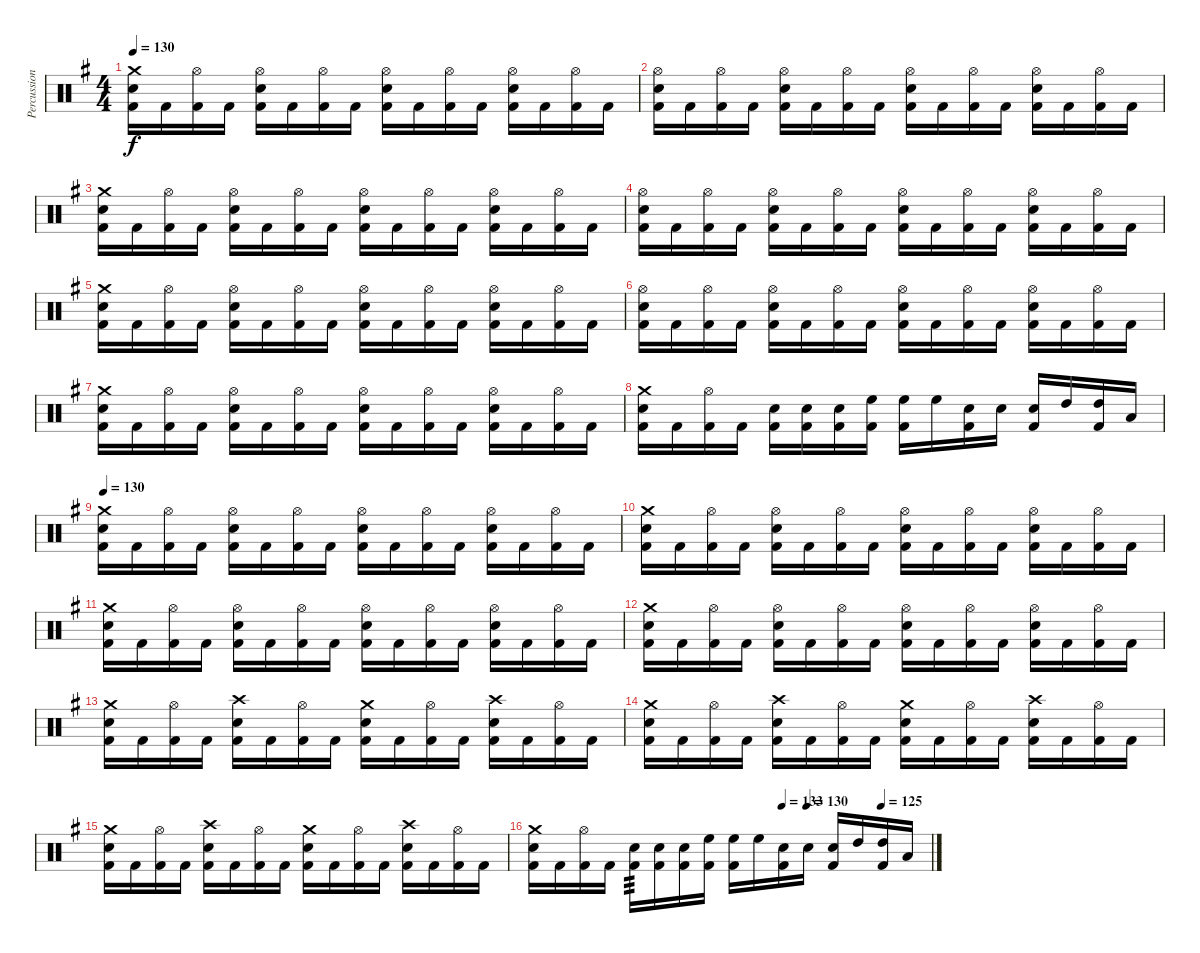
\track ("Percussion" "Percussion") {instrument percussion}
\staff {score}
\articulation defaults
\ts (4 4)
\tempo 130
\clef neutral
\ks eminor
("Crash medium (hit)" "Snare (hit) 2" "Kick (hit) 2").16{dy f} "Kick (hit) 2".16 ("Hi-Hat (open)" "Kick (hit) 2").16 "Kick (hit) 2".16 ("Hi-Hat (open)" "Snare (hit) 2" "Kick (hit) 2").16 "Kick (hit) 2".16 ("Hi-Hat (open)" "Kick (hit) 2").16 "Kick (hit) 2".16 ("Hi-Hat (open)" "Snare (hit) 2" "Kick (hit) 2").16 "Kick (hit) 2".16 ("Hi-Hat (open)" "Kick (hit) 2").16 "Kick (hit) 2".16 ("Hi-Hat (open)" "Snare (hit) 2" "Kick (hit) 2").16 "Kick (hit) 2".16 ("Hi-Hat (open)" "Kick (hit) 2").16 "Kick (hit) 2".16 |
("Hi-Hat (open)" "Snare (hit) 2" "Kick (hit) 2").16 "Kick (hit) 2".16 ("Hi-Hat (open)" "Kick (hit) 2").16 "Kick (hit) 2".16 ("Hi-Hat (open)" "Snare (hit) 2" "Kick (hit) 2").16 "Kick (hit) 2".16 ("Hi-Hat (open)" "Kick (hit) 2").16 "Kick (hit) 2".16 ("Hi-Hat (open)" "Snare (hit) 2" "Kick (hit) 2").16 "Kick (hit) 2".16 ("Hi-Hat (open)" "Kick (hit) 2").16 "Kick (hit) 2".16 ("Hi-Hat (open)" "Snare (hit) 2" "Kick (hit) 2").16 "Kick (hit) 2".16 ("Hi-Hat (open)" "Kick (hit) 2").16 "Kick (hit) 2".16 |
("Crash medium (hit)" "Snare (hit) 2" "Kick (hit) 2").16 "Kick (hit) 2".16 ("Hi-Hat (open)" "Kick (hit) 2").16 "Kick (hit) 2".16 ("Hi-Hat (open)" "Snare (hit) 2" "Kick (hit) 2").16 "Kick (hit) 2".16 ("Hi-Hat (open)" "Kick (hit) 2").16 "Kick (hit) 2".16 ("Hi-Hat (open)" "Snare (hit) 2" "Kick (hit) 2").16 "Kick (hit) 2".16 ("Hi-Hat (open)" "Kick (hit) 2").16 "Kick (hit) 2".16 ("Hi-Hat (open)" "Snare (hit) 2" "Kick (hit) 2").16 "Kick (hit) 2".16 ("Hi-Hat (open)" "Kick (hit) 2").16 "Kick (hit) 2".16 |
("Hi-Hat (open)" "Snare (hit) 2" "Kick (hit) 2").16 "Kick (hit) 2".16 ("Hi-Hat (open)" "Kick (hit) 2").16 "Kick (hit) 2".16 ("Hi-Hat (open)" "Snare (hit) 2" "Kick (hit) 2").16 "Kick (hit) 2".16 ("Hi-Hat (open)" "Kick (hit) 2").16 "Kick (hit) 2".16 ("Hi-Hat (open)" "Snare (hit) 2" "Kick (hit) 2").16 "Kick (hit) 2".16 ("Hi-Hat (open)" "Kick (hit) 2").16 "Kick (hit) 2".16 ("Hi-Hat (open)" "Snare (hit) 2" "Kick (hit) 2").16 "Kick (hit) 2".16 ("Hi-Hat (open)" "Kick (hit) 2").16 "Kick (hit) 2".16 |
("Crash medium (hit)" "Snare (hit) 2" "Kick (hit) 2").16 "Kick (hit) 2".16 ("Hi-Hat (open)" "Kick (hit) 2").16 "Kick (hit) 2".16 ("Hi-Hat (open)" "Snare (hit) 2" "Kick (hit) 2").16 "Kick (hit) 2".16 ("Hi-Hat (open)" "Kick (hit) 2").16 "Kick (hit) 2".16 ("Hi-Hat (open)" "Snare (hit) 2" "Kick (hit) 2").16 "Kick (hit) 2".16 ("Hi-Hat (open)" "Kick (hit) 2").16 "Kick (hit) 2".16 ("Hi-Hat (open)" "Snare (hit) 2" "Kick (hit) 2").16 "Kick (hit) 2".16 ("Hi-Hat (open)" "Kick (hit) 2").16 "Kick (hit) 2".16 |
("Hi-Hat (open)" "Snare (hit) 2" "Kick (hit) 2").16 "Kick (hit) 2".16 ("Hi-Hat (open)" "Kick (hit) 2").16 "Kick (hit) 2".16 ("Hi-Hat (open)" "Snare (hit) 2" "Kick (hit) 2").16 "Kick (hit) 2".16 ("Hi-Hat (open)" "Kick (hit) 2").16 "Kick (hit) 2".16 ("Hi-Hat (open)" "Snare (hit) 2" "Kick (hit) 2").16 "Kick (hit) 2".16 ("Hi-Hat (open)" "Kick (hit) 2").16 "Kick (hit) 2".16 ("Hi-Hat (open)" "Snare (hit) 2" "Kick (hit) 2").16 "Kick (hit) 2".16 ("Hi-Hat (open)" "Kick (hit) 2").16 "Kick (hit) 2".16 |
("Crash medium (hit)" "Snare (hit) 2" "Kick (hit) 2").16 "Kick (hit) 2".16 ("Hi-Hat (open)" "Kick (hit) 2").16 "Kick (hit) 2".16 ("Hi-Hat (open)" "Snare (hit) 2" "Kick (hit) 2").16 "Kick (hit) 2".16 ("Hi-Hat (open)" "Kick (hit) 2").16 "Kick (hit) 2".16 ("Hi-Hat (open)" "Snare (hit) 2" "Kick (hit) 2").16 "Kick (hit) 2".16 ("Hi-Hat (open)" "Kick (hit) 2").16 "Kick (hit) 2".16 ("Hi-Hat (open)" "Snare (hit) 2" "Kick (hit) 2").16 "Kick (hit) 2".16 ("Hi-Hat (open)" "Kick (hit) 2").16 "Kick (hit) 2".16 |
("Crash medium (hit)" "Snare (hit) 2" "Kick (hit) 2").16 "Kick (hit) 2".16 ("Hi-Hat (open)" "Kick (hit) 2").16 "Kick (hit) 2".16 ("Snare (hit) 2" "Kick (hit) 2").16 ("Snare (hit) 2" "Kick (hit) 2").16 ("Snare (hit) 2" "Kick (hit) 2").16 ("High Floor Tom (hit)" "Kick (hit) 2").16 ("High Floor Tom (hit)" "Kick (hit) 2").16 "High Floor Tom (hit)".16 ("Snare (hit) 2" "Kick (hit) 2").16 "Snare (hit) 2".16 ("Snare (hit) 2" "Kick (hit) 2").16 "High Tom (hit)".16 ("High Tom (hit)" "Kick (hit) 2").16 "Low Tom (hit)".16 |
\tempo 130
("Crash medium (hit)" "Snare (hit) 2" "Kick (hit) 2").16 "Kick (hit) 2".16 ("Hi-Hat (open)" "Kick (hit) 2").16 "Kick (hit) 2".16 ("Hi-Hat (open)" "Snare (hit) 2" "Kick (hit) 2").16 "Kick (hit) 2".16 ("Hi-Hat (open)" "Kick (hit) 2").16 "Kick (hit) 2".16 ("Hi-Hat (open)" "Snare (hit) 2" "Kick (hit) 2").16 "Kick (hit) 2".16 ("Hi-Hat (open)" "Kick (hit) 2").16 "Kick (hit) 2".16 ("Hi-Hat (open)" "Snare (hit) 2" "Kick (hit) 2").16 "Kick (hit) 2".16 ("Hi-Hat (open)" "Kick (hit) 2").16 "Kick (hit) 2".16 |
("Crash medium (hit)" "Snare (hit) 2" "Kick (hit) 2").16 "Kick (hit) 2".16 ("Hi-Hat (open)" "Kick (hit) 2").16 "Kick (hit) 2".16 ("Hi-Hat (open)" "Snare (hit) 2" "Kick (hit) 2").16 "Kick (hit) 2".16 ("Hi-Hat (open)" "Kick (hit) 2").16 "Kick (hit) 2".16 ("Hi-Hat (open)" "Snare (hit) 2" "Kick (hit) 2").16 "Kick (hit) 2".16 ("Hi-Hat (open)" "Kick (hit) 2").16 "Kick (hit) 2".16 ("Hi-Hat (open)" "Snare (hit) 2" "Kick (hit) 2").16 "Kick (hit) 2".16 ("Hi-Hat (open)" "Kick (hit) 2").16 "Kick (hit) 2".16 |
("Crash medium (hit)" "Snare (hit) 2" "Kick (hit) 2").16 "Kick (hit) 2".16 ("Hi-Hat (open)" "Kick (hit) 2").16 "Kick (hit) 2".16 ("Hi-Hat (open)" "Snare (hit) 2" "Kick (hit) 2").16 "Kick (hit) 2".16 ("Hi-Hat (open)" "Kick (hit) 2").16 "Kick (hit) 2".16 ("Hi-Hat (open)" "Snare (hit) 2" "Kick (hit) 2").16 "Kick (hit) 2".16 ("Hi-Hat (open)" "Kick (hit) 2").16 "Kick (hit) 2".16 ("Hi-Hat (open)" "Snare (hit) 2" "Kick (hit) 2").16 "Kick (hit) 2".16 ("Hi-Hat (open)" "Kick (hit) 2").16 "Kick (hit) 2".16 |
("Crash medium (hit)" "Snare (hit) 2" "Kick (hit) 2").16 "Kick (hit) 2".16 ("Hi-Hat (open)" "Kick (hit) 2").16 "Kick (hit) 2".16 ("Hi-Hat (open)" "Snare (hit) 2" "Kick (hit) 2").16 "Kick (hit) 2".16 ("Hi-Hat (open)" "Kick (hit) 2").16 "Kick (hit) 2".16 ("Hi-Hat (open)" "Snare (hit) 2" "Kick (hit) 2").16 "Kick (hit) 2".16 ("Hi-Hat (open)" "Kick (hit) 2").16 "Kick (hit) 2".16 ("Hi-Hat (open)" "Snare (hit) 2" "Kick (hit) 2").16 "Kick (hit) 2".16 ("Hi-Hat (open)" "Kick (hit) 2").16 "Kick (hit) 2".16 |
("Crash medium (hit)" "Snare (hit) 2" "Kick (hit) 2").16 "Kick (hit) 2".16 ("Hi-Hat (open)" "Kick (hit) 2").16 "Kick (hit) 2".16 ("Crash high (hit)" "Snare (hit) 2" "Kick (hit) 2").16 "Kick (hit) 2".16 ("Hi-Hat (open)" "Kick (hit) 2").16 "Kick (hit) 2".16 ("Crash medium (hit)" "Snare (hit) 2" "Kick (hit) 2").16 "Kick (hit) 2".16 ("Hi-Hat (open)" "Kick (hit) 2").16 "Kick (hit) 2".16 ("Crash high (hit)" "Snare (hit) 2" "Kick (hit) 2").16 "Kick (hit) 2".16 ("Hi-Hat (open)" "Kick (hit) 2").16 "Kick (hit) 2".16 |
("Crash medium (hit)" "Snare (hit) 2" "Kick (hit) 2").16 "Kick (hit) 2".16 ("Hi-Hat (open)" "Kick (hit) 2").16 "Kick (hit) 2".16 ("Crash high (hit)" "Snare (hit) 2" "Kick (hit) 2").16 "Kick (hit) 2".16 ("Hi-Hat (open)" "Kick (hit) 2").16 "Kick (hit) 2".16 ("Crash medium (hit)" "Snare (hit) 2" "Kick (hit) 2").16 "Kick (hit) 2".16 ("Hi-Hat (open)" "Kick (hit) 2").16 "Kick (hit) 2".16 ("Crash high (hit)" "Snare (hit) 2" "Kick (hit) 2").16 "Kick (hit) 2".16 ("Hi-Hat (open)" "Kick (hit) 2").16 "Kick (hit) 2".16 |
("Crash medium (hit)" "Snare (hit) 2" "Kick (hit) 2").16 "Kick (hit) 2".16 ("Hi-Hat (open)" "Kick (hit) 2").16 "Kick (hit) 2".16 ("Crash high (hit)" "Snare (hit) 2" "Kick (hit) 2").16 "Kick (hit) 2".16 ("Hi-Hat (open)" "Kick (hit) 2").16 "Kick (hit) 2".16 ("Crash medium (hit)" "Snare (hit) 2" "Kick (hit) 2").16 "Kick (hit) 2".16 ("Hi-Hat (open)" "Kick (hit) 2").16 "Kick (hit) 2".16 ("Crash high (hit)" "Snare (hit) 2" "Kick (hit) 2").16 "Kick (hit) 2".16 ("Hi-Hat (open)" "Kick (hit) 2").16 "Kick (hit) 2".16 |
\tempo (133 0.625)
\tempo (130 0.6875)
\tempo (125 0.875)
("Crash medium (hit)" "Snare (hit) 2" "Kick (hit) 2").16 "Kick (hit) 2".16 ("Hi-Hat (open)" "Kick (hit) 2").16 "Kick (hit) 2".16 ("Snare (hit) 2" "Kick (hit) 2").16{tp 3} ("Snare (hit) 2" "Kick (hit) 2").16 ("Snare (hit) 2" "Kick (hit) 2").16 ("High Floor Tom (hit)" "Kick (hit) 2").16 ("High Floor Tom (hit)" "Kick (hit) 2").16 "High Floor Tom (hit)".16 ("Snare (hit) 2" "Kick (hit) 2").16 "Snare (hit) 2".16 ("Snare (hit) 2" "Kick (hit) 2").16 "High Tom (hit)".16 ("High Tom (hit)" "Kick (hit) 2").16 "Low Tom (hit)".16
